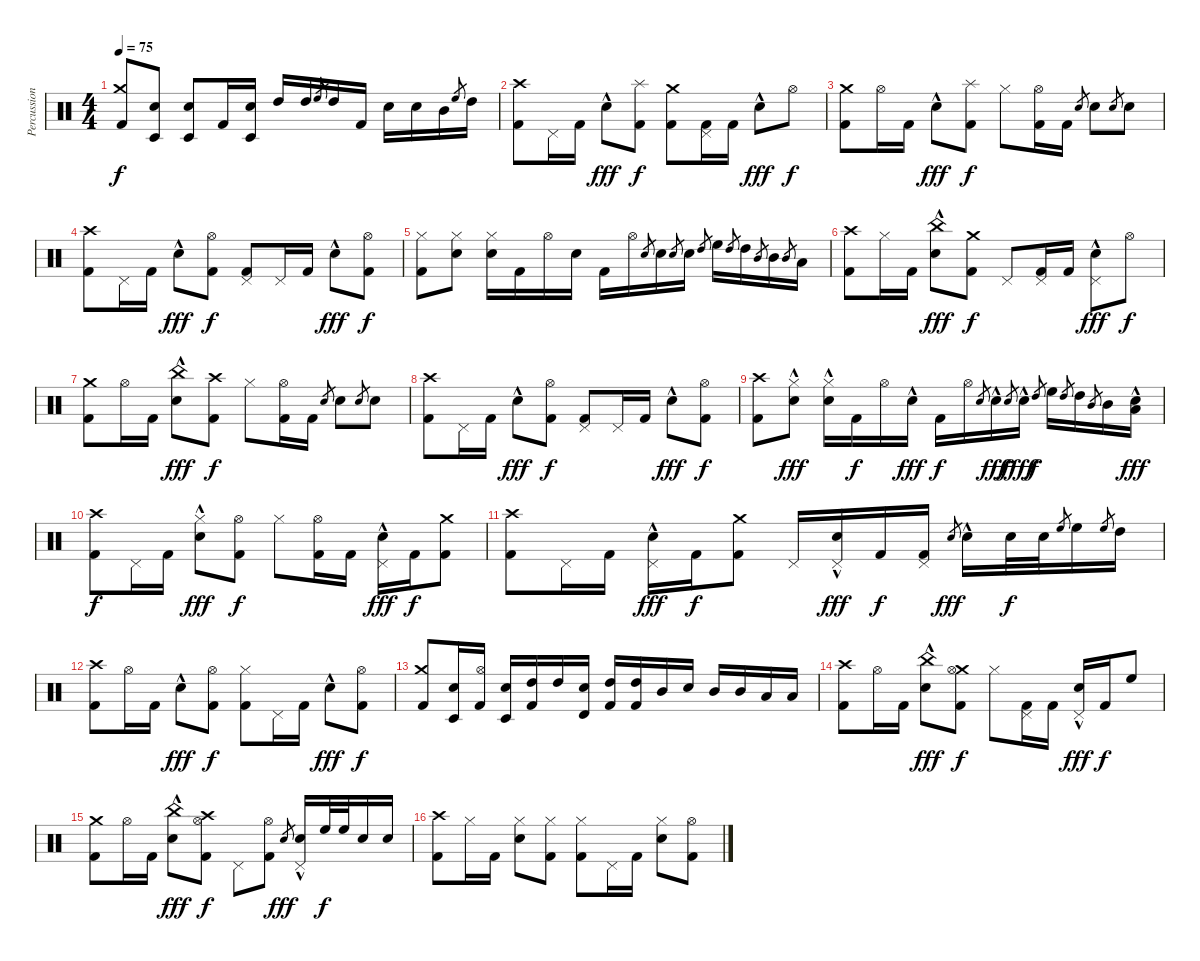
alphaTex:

\track ("Percussion" "Percussion") {instrument percussion}
\staff {score}
\articulation defaults
\ts (4 4)
\tempo 75
\clef neutral
\ks c
("Crash medium (hit)" "Kick (hit) 2").8{dy f} ("Timbale low (hit)" "Electric Snare (hit)").8 ("Timbale low (hit)" "Electric Snare (hit)").8 "Kick (hit) 2".16 ("Timbale low (hit)" "Electric Snare (hit)").16 "High Tom (hit)".16 "High Tom (hit)".16 "High Floor Tom (hit)".8{gr} "High Tom (hit)".16 "Kick (hit) 2".16 "Electric Snare (hit)".16 "Electric Snare (hit)".16 "Mid Tom (hit)".16 "High Floor Tom (hit)".8{gr} "High Tom (hit)".16 |
("Crash high (hit)" "Kick (hit) 2").8 "Pedal Hi-Hat (hit)".16 "Kick (hit) 2".16 "Electric Snare (hit)"{hac}.8{dy fff} ("Splash (hit)" "Kick (hit) 2").8{dy f} ("Crash medium (hit)" "Kick (hit) 2").8 ("Pedal Hi-Hat (hit)" "Kick (hit) 2").16 "Kick (hit) 2".16 "Electric Snare (hit)"{hac}.8{dy fff} "Hi-Hat (open)".8{dy f} |
("Crash medium (hit)" "Kick (hit) 2").8 "Hi-Hat (open)".16 "Kick (hit) 2".16 "Electric Snare (hit)"{hac}.8{dy fff} ("Splash (hit)" "Kick (hit) 2").8{dy f} "Hi-Hat (closed)".8 ("Hi-Hat (open)" "Kick (hit) 2").16 "Kick (hit) 2".16 "Electric Snare (hit)".8{gr} "Electric Snare (hit)".8 "Electric Snare (hit)".8{gr} "Electric Snare (hit)".8 |
("Crash high (hit)" "Kick (hit) 2").8 "Pedal Hi-Hat (hit)".16 "Kick (hit) 2".16 "Electric Snare (hit)"{hac}.8{dy fff} ("Hi-Hat (open)" "Kick (hit) 2").8{dy f} ("Pedal Hi-Hat (hit)" "Kick (hit) 2").8 "Pedal Hi-Hat (hit)".16 "Kick (hit) 2".16 "Electric Snare (hit)"{hac}.8{dy fff} ("Hi-Hat (open)" "Kick (hit) 2").8{dy f} |
("Hi-Hat (closed)" "Kick (hit) 2").8 ("Hi-Hat (closed)" "Electric Snare (hit)").8 ("Hi-Hat (closed)" "Electric Snare (hit)").16 "Kick (hit) 2".16 "Hi-Hat (open)".16 "Electric Snare (hit)".16 "Kick (hit) 2".16 "Hi-Hat (open)".16 "Electric Snare (hit)".8{gr} "Electric Snare (hit)".16 "Electric Snare (hit)".8{gr} "Electric Snare (hit)".16 "High Tom (hit)".8{gr} "High Floor Tom (hit)".16 "High Tom (hit)".8{gr} "High Tom (hit)".16 "Mid Tom (hit)".8{gr} "Mid Tom (hit)".16 "Mid Tom (hit)".8{gr} "Low Tom (hit)".16 |
("Crash high (hit)" "Kick (hit) 2").8 "Hi-Hat (closed)".16 "Kick (hit) 2".16 ("China (hit)" "Electric Snare (hit)"{hac}).8{dy fff} ("Crash medium (hit)" "Kick (hit) 2").8{dy f} "Pedal Hi-Hat (hit)".8 ("Pedal Hi-Hat (hit)" "Kick (hit) 2").16 "Kick (hit) 2".16 ("Pedal Hi-Hat (hit)" "Electric Snare (hit)"{hac}).8{dy fff} "Hi-Hat (open)".8{dy f} |
("Crash medium (hit)" "Kick (hit) 2").8 "Hi-Hat (open)".16 "Kick (hit) 2".16 ("China (hit)" "Electric Snare (hit)"{hac}).8{dy fff} ("Crash high (hit)" "Kick (hit) 2").8{dy f} "Hi-Hat (closed)".8 ("Hi-Hat (open)" "Kick (hit) 2").16 "Kick (hit) 2".16 "Electric Snare (hit)".8{gr} "Electric Snare (hit)".8 "Electric Snare (hit)".8{gr} "Electric Snare (hit)".8 |
("Crash high (hit)" "Kick (hit) 2").8 "Pedal Hi-Hat (hit)".16 "Kick (hit) 2".16 "Electric Snare (hit)"{hac}.8{dy fff} ("Hi-Hat (open)" "Kick (hit) 2").8{dy f} ("Pedal Hi-Hat (hit)" "Kick (hit) 2").8 "Pedal Hi-Hat (hit)".16 "Kick (hit) 2".16 "Electric Snare (hit)"{hac}.8{dy fff} ("Hi-Hat (open)" "Kick (hit) 2").8{dy f} |
("Crash high (hit)" "Kick (hit) 2").8 ("Hi-Hat (closed)" "Electric Snare (hit)"{hac}).8{dy fff} ("Hi-Hat (closed)" "Electric Snare (hit)"{hac}).16 "Kick (hit) 2".16{dy f} "Hi-Hat (open)".16 "Electric Snare (hit)"{hac}.16{dy fff} "Kick (hit) 2".16{dy f} "Hi-Hat (open)".16 "Electric Snare (hit)".8{gr} "Electric Snare (hit)"{hac}.16{dy fff} "Electric Snare (hit)".8{gr dy f} "Electric Snare (hit)"{hac}.16{dy fff} "High Tom (hit)".8{gr dy f} "High Floor Tom (hit)".16 "High Tom (hit)".8{gr} "High Tom (hit)".16 "Mid Tom (hit)".8{gr} "Mid Tom (hit)".16 ("Low Tom (hit)"{hac} "Electric Snare (hit)").16{dy fff} |
("Crash high (hit)" "Kick (hit) 2").8{dy f} "Pedal Hi-Hat (hit)".16 "Kick (hit) 2".16 ("Hi-Hat (closed)" "Electric Snare (hit)"{hac}).8{dy fff} ("Hi-Hat (open)" "Kick (hit) 2").8{dy f} "Hi-Hat (closed)".8 ("Hi-Hat (open)" "Kick (hit) 2").16 "Kick (hit) 2".16 ("Pedal Hi-Hat (hit)" "Electric Snare (hit)"{hac}).16{dy fff} "Kick (hit) 2".16{dy f} ("Crash medium (hit)" "Kick (hit) 2").8 |
("Crash high (hit)" "Kick (hit) 2").8 "Pedal Hi-Hat (hit)".16 "Kick (hit) 2".16 ("Pedal Hi-Hat (hit)" "Electric Snare (hit)"{hac}).16{dy fff} "Kick (hit) 2".16{dy f} ("Crash medium (hit)" "Kick (hit) 2").8 "Pedal Hi-Hat (hit)".16 ("Pedal Hi-Hat (hit)" "Electric Snare (hit)"{hac}).16{dy fff} "Kick (hit) 2".16{dy f} ("Pedal Hi-Hat (hit)" "Kick (hit) 2").16 "Electric Snare (hit)".8{gr dy fff} "Electric Snare (hit)"{hac}.16 "Electric Snare (hit)".32{dy f} "Electric Snare (hit)".32 "High Floor Tom (hit)".8{gr} "High Floor Tom (hit)".16 "High Floor Tom (hit)".8{gr} "High Tom (hit)".16 |
("Crash high (hit)" "Kick (hit) 2").8 "Hi-Hat (open)".16 "Kick (hit) 2".16 "Electric Snare (hit)"{hac}.8{dy fff} ("Hi-Hat (open)" "Kick (hit) 2").8{dy f} ("Hi-Hat (closed)" "Kick (hit) 2").8 "Pedal Hi-Hat (hit)".16 "Kick (hit) 2".16 "Electric Snare (hit)"{hac}.8{dy fff} ("Hi-Hat (open)" "Kick (hit) 2").8{dy f} |
("Crash medium (hit)" "Kick (hit) 2").8 ("Timbale low (hit)" "Electric Snare (hit)").16 ("Hi-Hat (open)" "Kick (hit) 2").16 ("Timbale low (hit)" "Electric Snare (hit)").16 ("High Tom (hit)" "Kick (hit) 2").16 "High Tom (hit)".16 ("Timbale high (hit)" "Electric Snare (hit)").16 ("High Tom (hit)" "Kick (hit) 2").16 ("High Tom (hit)" "Kick (hit) 2").16 "Mid Tom (hit)".16 "Electric Snare (hit)".16 "Mid Tom (hit)".16 "Mid Tom (hit)".16 "Low Tom (hit)".16 "Low Tom (hit)".16 |
("Crash high (hit)" "Kick (hit) 2").8 "Hi-Hat (open)".16 "Kick (hit) 2".16 ("China (hit)" "Electric Snare (hit)"{hac}).8{dy fff} ("Crash medium (hit)" "Hi-Hat (open)" "Kick (hit) 2").8{dy f} "Hi-Hat (closed)".8 ("Pedal Hi-Hat (hit)" "Kick (hit) 2").16 "Kick (hit) 2".16 ("Pedal Hi-Hat (hit)" "Electric Snare (hit)"{hac}).16{dy fff} "Kick (hit) 2".16{dy f} "High Floor Tom (hit)".8 |
("Crash medium (hit)" "Kick (hit) 2").8 "Hi-Hat (open)".16 "Kick (hit) 2".16 ("China (hit)" "Electric Snare (hit)"{hac}).8{dy fff} ("Crash high (hit)" "Hi-Hat (open)" "Kick (hit) 2").8{dy f} "Pedal Hi-Hat (hit)".8 ("Hi-Hat (open)" "Kick (hit) 2").8 "Electric Snare (hit)".8{gr dy fff} ("Pedal Hi-Hat (hit)" "Electric Snare (hit)"{hac}).16 "High Floor Tom (hit)".32{dy f} "High Floor Tom (hit)".32 "Electric Snare (hit)".16 "Electric Snare (hit)".16 |
("Crash high (hit)" "Kick (hit) 2").8 "Hi-Hat (closed)".16 "Kick (hit) 2".16 ("Hi-Hat (closed)" "Electric Snare (hit)").8 ("Hi-Hat (closed)" "Kick (hit) 2").8 ("Hi-Hat (closed)" "Kick (hit) 2").8 "Pedal Hi-Hat (hit)".16 "Kick (hit) 2".16 ("Hi-Hat (closed)" "Electric Snare (hit)").8 ("Hi-Hat (open)" "Kick (hit) 2").8
